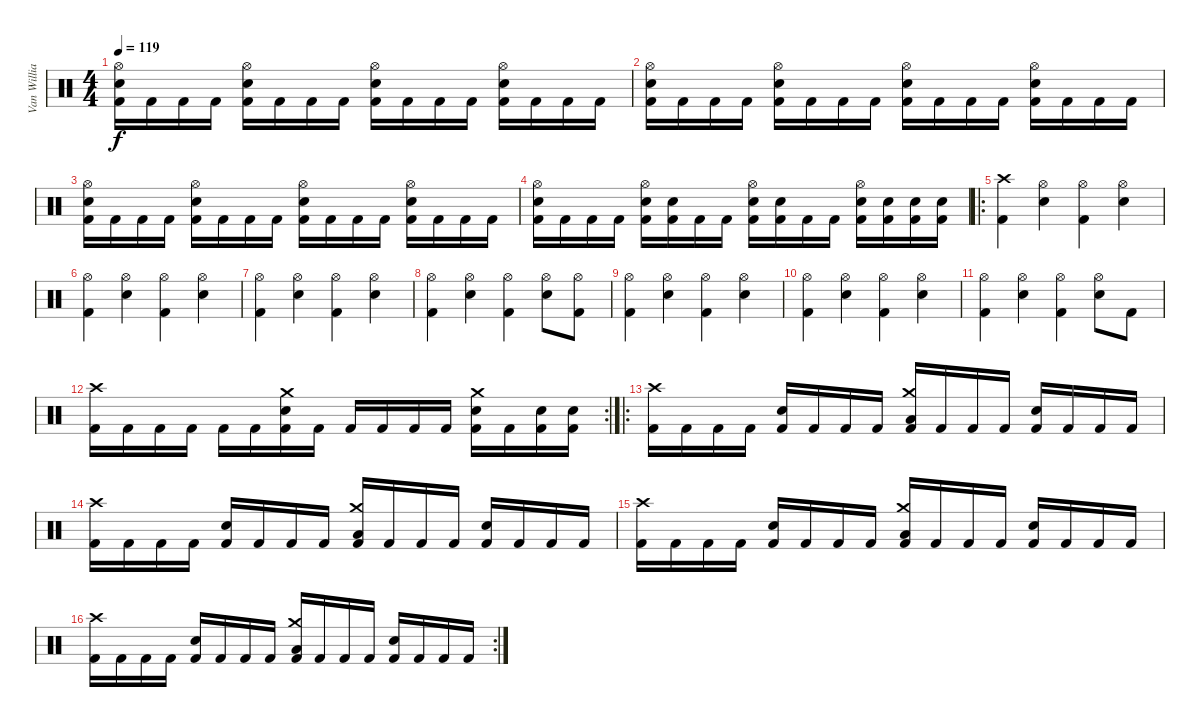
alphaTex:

\track ("Van Williams" "Van Willia") {instrument percussion}
\staff {score}
\articulation defaults
\ts (4 4)
\tempo 119
\clef neutral
\ks c
("Hi-Hat (open)" "Electric Snare (hit)" "Kick (hit) 2").16{dy f} "Kick (hit) 2".16 "Kick (hit) 2".16 "Kick (hit) 2".16 ("Hi-Hat (open)" "Electric Snare (hit)" "Kick (hit) 2").16 "Kick (hit) 2".16 "Kick (hit) 2".16 "Kick (hit) 2".16 ("Hi-Hat (open)" "Electric Snare (hit)" "Kick (hit) 2").16 "Kick (hit) 2".16 "Kick (hit) 2".16 "Kick (hit) 2".16 ("Hi-Hat (open)" "Electric Snare (hit)" "Kick (hit) 2").16 "Kick (hit) 2".16 "Kick (hit) 2".16 "Kick (hit) 2".16 |
("Hi-Hat (open)" "Electric Snare (hit)" "Kick (hit) 2").16 "Kick (hit) 2".16 "Kick (hit) 2".16 "Kick (hit) 2".16 ("Hi-Hat (open)" "Electric Snare (hit)" "Kick (hit) 2").16 "Kick (hit) 2".16 "Kick (hit) 2".16 "Kick (hit) 2".16 ("Hi-Hat (open)" "Electric Snare (hit)" "Kick (hit) 2").16 "Kick (hit) 2".16 "Kick (hit) 2".16 "Kick (hit) 2".16 ("Hi-Hat (open)" "Electric Snare (hit)" "Kick (hit) 2").16 "Kick (hit) 2".16 "Kick (hit) 2".16 "Kick (hit) 2".16 |
("Hi-Hat (open)" "Electric Snare (hit)" "Kick (hit) 2").16 "Kick (hit) 2".16 "Kick (hit) 2".16 "Kick (hit) 2".16 ("Hi-Hat (open)" "Electric Snare (hit)" "Kick (hit) 2").16 "Kick (hit) 2".16 "Kick (hit) 2".16 "Kick (hit) 2".16 ("Hi-Hat (open)" "Electric Snare (hit)" "Kick (hit) 2").16 "Kick (hit) 2".16 "Kick (hit) 2".16 "Kick (hit) 2".16 ("Hi-Hat (open)" "Electric Snare (hit)" "Kick (hit) 2").16 "Kick (hit) 2".16 "Kick (hit) 2".16 "Kick (hit) 2".16 |
("Hi-Hat (open)" "Electric Snare (hit)" "Kick (hit) 2").16 "Kick (hit) 2".16 "Kick (hit) 2".16 "Kick (hit) 2".16 ("Hi-Hat (open)" "Electric Snare (hit)" "Kick (hit) 2").16 ("Electric Snare (hit)" "Kick (hit) 2").16 "Kick (hit) 2".16 "Kick (hit) 2".16 ("Hi-Hat (open)" "Electric Snare (hit)" "Kick (hit) 2").16 ("Electric Snare (hit)" "Kick (hit) 2").16 "Kick (hit) 2".16 "Kick (hit) 2".16 ("Hi-Hat (open)" "Electric Snare (hit)" "Kick (hit) 2").16 ("Electric Snare (hit)" "Kick (hit) 2").16 ("Electric Snare (hit)" "Kick (hit) 2").16 ("Electric Snare (hit)" "Kick (hit) 2").16 |
\ro
("Crash high (hit)" "Kick (hit) 2").4 ("Hi-Hat (open)" "Electric Snare (hit)").4 ("Hi-Hat (open)" "Kick (hit) 2").4 ("Hi-Hat (open)" "Electric Snare (hit)").4 |
("Hi-Hat (open)" "Kick (hit) 2").4 ("Hi-Hat (open)" "Electric Snare (hit)").4 ("Hi-Hat (open)" "Kick (hit) 2").4 ("Hi-Hat (open)" "Electric Snare (hit)").4 |
("Hi-Hat (open)" "Kick (hit) 2").4 ("Hi-Hat (open)" "Electric Snare (hit)").4 ("Hi-Hat (open)" "Kick (hit) 2").4 ("Hi-Hat (open)" "Electric Snare (hit)").4 |
("Hi-Hat (open)" "Kick (hit) 2").4 ("Hi-Hat (open)" "Electric Snare (hit)").4 ("Hi-Hat (open)" "Kick (hit) 2").4 ("Hi-Hat (open)" "Electric Snare (hit)").8 ("Hi-Hat (open)" "Kick (hit) 2").8 |
("Hi-Hat (open)" "Kick (hit) 2").4 ("Hi-Hat (open)" "Electric Snare (hit)").4 ("Hi-Hat (open)" "Kick (hit) 2").4 ("Hi-Hat (open)" "Electric Snare (hit)").4 |
("Hi-Hat (open)" "Kick (hit) 2").4 ("Hi-Hat (open)" "Electric Snare (hit)").4 ("Hi-Hat (open)" "Kick (hit) 2").4 ("Hi-Hat (open)" "Electric Snare (hit)").4 |
("Hi-Hat (open)" "Kick (hit) 2").4 ("Hi-Hat (open)" "Electric Snare (hit)").4 ("Hi-Hat (open)" "Kick (hit) 2").4 ("Hi-Hat (open)" "Electric Snare (hit)").8 "Kick (hit) 2".8 |
\rc 2
("Crash high (hit)" "Kick (hit) 2").16 "Kick (hit) 2".16 "Kick (hit) 2".16 "Kick (hit) 2".16 "Kick (hit) 2".16 "Kick (hit) 2".16 ("Crash medium (hit)" "Electric Snare (hit)" "Kick (hit) 2").16 "Kick (hit) 2".16 "Kick (hit) 2".16 "Kick (hit) 2".16 "Kick (hit) 2".16 "Kick (hit) 2".16 ("Crash medium (hit)" "Electric Snare (hit)" "Kick (hit) 2").16 "Kick (hit) 2".16 ("Electric Snare (hit)" "Kick (hit) 2").16 ("Electric Snare (hit)" "Kick (hit) 2").16 |
\ro
("Crash high (hit)" "Kick (hit) 2").16 "Kick (hit) 2".16 "Kick (hit) 2".16 "Kick (hit) 2".16 ("Electric Snare (hit)" "Kick (hit) 2").16 "Kick (hit) 2".16 "Kick (hit) 2".16 "Kick (hit) 2".16 ("Crash medium (hit)" "Low Floor Tom (hit)" "Kick (hit) 2").16 "Kick (hit) 2".16 "Kick (hit) 2".16 "Kick (hit) 2".16 ("Electric Snare (hit)" "Kick (hit) 2").16 "Kick (hit) 2".16 "Kick (hit) 2".16 "Kick (hit) 2".16 |
("Crash high (hit)" "Kick (hit) 2").16 "Kick (hit) 2".16 "Kick (hit) 2".16 "Kick (hit) 2".16 ("Electric Snare (hit)" "Kick (hit) 2").16 "Kick (hit) 2".16 "Kick (hit) 2".16 "Kick (hit) 2".16 ("Crash medium (hit)" "Low Floor Tom (hit)" "Kick (hit) 2").16 "Kick (hit) 2".16 "Kick (hit) 2".16 "Kick (hit) 2".16 ("Electric Snare (hit)" "Kick (hit) 2").16 "Kick (hit) 2".16 "Kick (hit) 2".16 "Kick (hit) 2".16 |
("Crash high (hit)" "Kick (hit) 2").16 "Kick (hit) 2".16 "Kick (hit) 2".16 "Kick (hit) 2".16 ("Electric Snare (hit)" "Kick (hit) 2").16 "Kick (hit) 2".16 "Kick (hit) 2".16 "Kick (hit) 2".16 ("Crash medium (hit)" "Low Floor Tom (hit)" "Kick (hit) 2").16 "Kick (hit) 2".16 "Kick (hit) 2".16 "Kick (hit) 2".16 ("Electric Snare (hit)" "Kick (hit) 2").16 "Kick (hit) 2".16 "Kick (hit) 2".16 "Kick (hit) 2".16 |
\rc 2
("Crash high (hit)" "Kick (hit) 2").16 "Kick (hit) 2".16 "Kick (hit) 2".16 "Kick (hit) 2".16 ("Electric Snare (hit)" "Kick (hit) 2").16 "Kick (hit) 2".16 "Kick (hit) 2".16 "Kick (hit) 2".16 ("Crash medium (hit)" "Low Floor Tom (hit)" "Kick (hit) 2").16 "Kick (hit) 2".16 "Kick (hit) 2".16 "Kick (hit) 2".16 ("Electric Snare (hit)" "Kick (hit) 2").16 "Kick (hit) 2".16 "Kick (hit) 2".16 "Kick (hit) 2".16
